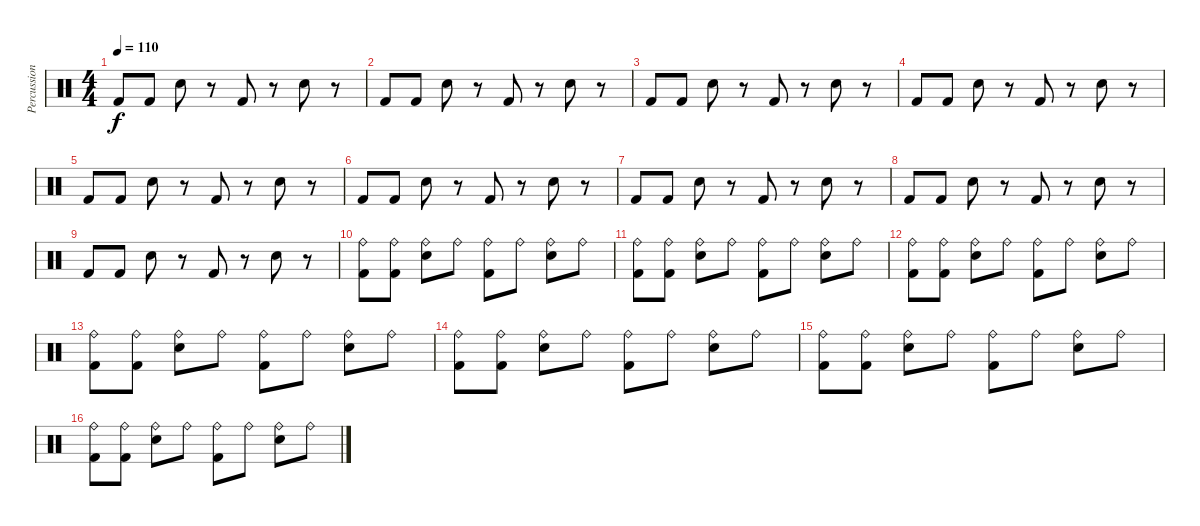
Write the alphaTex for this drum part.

\track ("Percussion" "Percussion") {instrument percussion}
\staff {score}
\articulation defaults
\ts (4 4)
\tempo 110
\clef neutral
\ks c "Kick (hit) 2".8{dy f} "Kick (hit) 2".8 "Snare (hit) 2".8
r.8 "Kick (hit) 2".8 r.8 "Snare (hit) 2".8 r.8 |
"Kick (hit) 2".8 "Kick (hit) 2".8 "Snare (hit) 2".8 r.8 "Kick (hit) 2".8 r.8 "Snare (hit) 2".8 r.8 |
"Kick (hit) 2".8 "Kick (hit) 2".8 "Snare (hit) 2".8 r.8 "Kick (hit) 2".8 r.8 "Snare (hit) 2".8 r.8 |
"Kick (hit) 2".8 "Kick (hit) 2".8 "Snare (hit) 2".8 r.8 "Kick (hit) 2".8 r.8 "Snare (hit) 2".8 r.8 |
"Kick (hit) 2".8 "Kick (hit) 2".8 "Snare (hit) 2".8 r.8 "Kick (hit) 2".8 r.8 "Snare (hit) 2".8 r.8 |
"Kick (hit) 2".8 "Kick (hit) 2".8 "Snare (hit) 2".8 r.8 "Kick (hit) 2".8 r.8 "Snare (hit) 2".8 r.8 |
"Kick (hit) 2".8 "Kick (hit) 2".8 "Snare (hit) 2".8 r.8 "Kick (hit) 2".8 r.8 "Snare (hit) 2".8 r.8 |
"Kick (hit) 2".8 "Kick (hit) 2".8 "Snare (hit) 2".8 r.8 "Kick (hit) 2".8 r.8 "Snare (hit) 2".8 r.8 |
"Kick (hit) 2".8 "Kick (hit) 2".8 "Snare (hit) 2".8 r.8 "Kick (hit) 2".8 r.8 "Snare (hit) 2".8 r.8 |
("Ride (bell)" "Kick (hit) 2").8 ("Ride (bell)" "Kick (hit) 2").8 ("Ride (bell)" "Snare (hit) 2").8 "Ride (bell)".8 ("Ride (bell)" "Kick (hit) 2").8 "Ride (bell)".8 ("Ride (bell)" "Snare (hit) 2").8 "Ride (bell)".8 |
("Ride (bell)" "Kick (hit) 2").8 ("Ride (bell)" "Kick (hit) 2").8 ("Ride (bell)" "Snare (hit) 2").8 "Ride (bell)".8 ("Ride (bell)" "Kick (hit) 2").8 "Ride (bell)".8 ("Ride (bell)" "Snare (hit) 2").8 "Ride (bell)".8 |
("Ride (bell)" "Kick (hit) 2").8 ("Ride (bell)" "Kick (hit) 2").8 ("Ride (bell)" "Snare (hit) 2").8 "Ride (bell)".8 ("Ride (bell)" "Kick (hit) 2").8 "Ride (bell)".8 ("Ride (bell)" "Snare (hit) 2").8 "Ride (bell)".8 |
("Ride (bell)" "Kick (hit) 2").8 ("Ride (bell)" "Kick (hit) 2").8 ("Ride (bell)" "Snare (hit) 2").8 "Ride (bell)".8 ("Ride (bell)" "Kick (hit) 2").8 "Ride (bell)".8 ("Ride (bell)" "Snare (hit) 2").8 "Ride (bell)".8 |
("Ride (bell)" "Kick (hit) 2").8 ("Ride (bell)" "Kick (hit) 2").8 ("Ride (bell)" "Snare (hit) 2").8 "Ride (bell)".8 ("Ride (bell)" "Kick (hit) 2").8 "Ride (bell)".8 ("Ride (bell)" "Snare (hit) 2").8 "Ride (bell)".8 |
("Ride (bell)" "Kick (hit) 2").8 ("Ride (bell)" "Kick (hit) 2").8 ("Ride (bell)" "Snare (hit) 2").8 "Ride (bell)".8 ("Ride (bell)" "Kick (hit) 2").8 "Ride (bell)".8 ("Ride (bell)" "Snare (hit) 2").8 "Ride (bell)".8 |
("Ride (bell)" "Kick (hit) 2").8 ("Ride (bell)" "Kick (hit) 2").8 ("Ride (bell)" "Snare (hit) 2").8 "Ride (bell)".8 ("Ride (bell)" "Kick (hit) 2").8 "Ride (bell)".8 ("Ride (bell)" "Snare (hit) 2").8 "Ride (bell)".8
